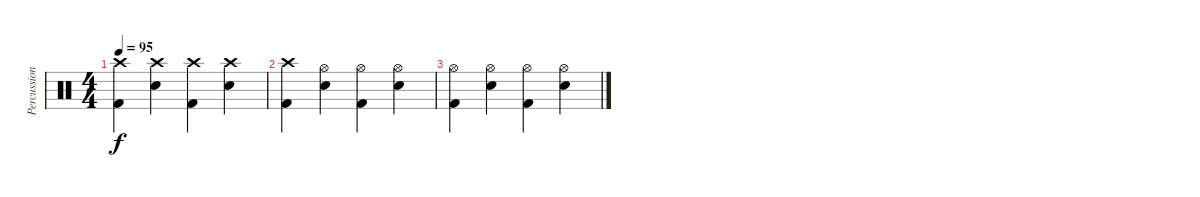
\track ("Percussion" "Percussion") {instrument percussion}
\staff {score}
\articulation defaults
\ts (4 4)
\tempo 95
\clef neutral
\ks c
("Crash high (hit)" "Kick (hit) 2").4{dy f} ("Crash high (hit)" "Electric Snare (hit)").4 ("Crash high (hit)" "Kick (hit) 2").4 ("Crash high (hit)" "Electric Snare (hit)").4 |
("Crash high (hit)" "Kick (hit) 2").4{volume 4} ("Hi-Hat (open)" "Electric Snare (hit)").4 ("Hi-Hat (open)" "Kick (hit) 2").4 ("Hi-Hat (open)" "Electric Snare (hit)").4 |
("Hi-Hat (open)" "Kick (hit) 2").4 ("Hi-Hat (open)" "Electric Snare (hit)").4 ("Hi-Hat (open)" "Kick (hit) 2").4 ("Hi-Hat (open)" "Electric Snare (hit)").4
